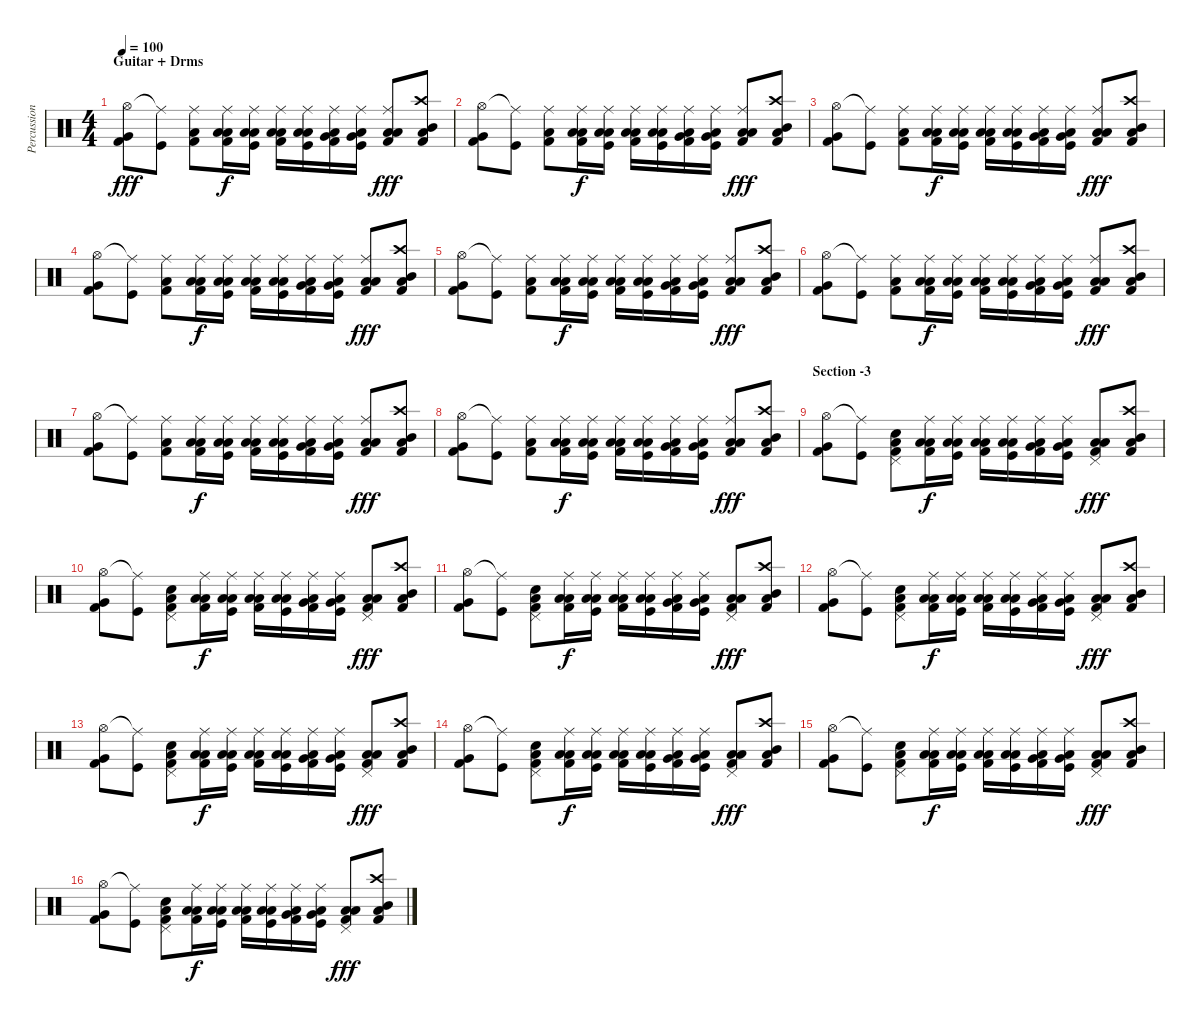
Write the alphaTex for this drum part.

\track ("Percussion" "Percussion") {instrument percussion}
\staff {score}
\articulation defaults
\ts (4 4)
\section ("" "Guitar + Drms")
\tempo 100
\clef neutral
\ks c
("Hi-Hat (open)" "Kick (hit) 2" "Very Low Tom (hit)").8{dy fff} ("Ride (middle)"{t} "Kick (hit)").8 ("Ride (middle)" "Kick (hit) 2" "Low Floor Tom (hit)").8 ("Ride (middle)" "Kick (hit) 2" "Low Floor Tom (hit)" "Low Tom (hit)").16{dy f} ("Ride (middle)" "Kick (hit)" "Low Floor Tom (hit)" "Low Tom (hit)").16 ("Ride (middle)" "Kick (hit) 2" "Low Floor Tom (hit)" "Low Tom (hit)").16 ("Ride (middle)" "Kick (hit)" "Low Floor Tom (hit)" "Low Tom (hit)").16 ("Ride (middle)" "Kick (hit) 2" "Low Floor Tom (hit)" "Very Low Tom (hit)").16 ("Ride (middle)" "Kick (hit)" "Low Floor Tom (hit)" "Very Low Tom (hit)").16 ("Ride (middle)" "Kick (hit) 2" "Low Floor Tom (hit)" "Low Floor Tom (hit)").8{dy fff} ("Crash high (hit)" "Kick (hit) 2" "Low Floor Tom (hit)" "Mid Tom (hit)").8 |
("Hi-Hat (open)" "Kick (hit) 2" "Very Low Tom (hit)").8 ("Ride (middle)"{t} "Kick (hit)").8 ("Ride (middle)" "Kick (hit) 2" "Low Floor Tom (hit)").8 ("Ride (middle)" "Kick (hit) 2" "Low Floor Tom (hit)" "Low Tom (hit)").16{dy f} ("Ride (middle)" "Kick (hit)" "Low Floor Tom (hit)" "Low Tom (hit)").16 ("Ride (middle)" "Kick (hit) 2" "Low Floor Tom (hit)" "Low Tom (hit)").16 ("Ride (middle)" "Kick (hit)" "Low Floor Tom (hit)" "Low Tom (hit)").16 ("Ride (middle)" "Kick (hit) 2" "Low Floor Tom (hit)" "Very Low Tom (hit)").16 ("Ride (middle)" "Kick (hit)" "Low Floor Tom (hit)" "Very Low Tom (hit)").16 ("Ride (middle)" "Kick (hit) 2" "Low Floor Tom (hit)" "Low Floor Tom (hit)").8{dy fff} ("Crash high (hit)" "Kick (hit) 2" "Low Floor Tom (hit)" "Mid Tom (hit)").8 |
("Hi-Hat (open)" "Kick (hit) 2" "Very Low Tom (hit)").8 ("Ride (middle)"{t} "Kick (hit)").8 ("Ride (middle)" "Kick (hit) 2" "Low Floor Tom (hit)").8 ("Ride (middle)" "Kick (hit) 2" "Low Floor Tom (hit)" "Low Tom (hit)").16{dy f} ("Ride (middle)" "Kick (hit)" "Low Floor Tom (hit)" "Low Tom (hit)").16 ("Ride (middle)" "Kick (hit) 2" "Low Floor Tom (hit)" "Low Tom (hit)").16 ("Ride (middle)" "Kick (hit)" "Low Floor Tom (hit)" "Low Tom (hit)").16 ("Ride (middle)" "Kick (hit) 2" "Low Floor Tom (hit)" "Very Low Tom (hit)").16 ("Ride (middle)" "Kick (hit)" "Low Floor Tom (hit)" "Very Low Tom (hit)").16 ("Ride (middle)" "Kick (hit) 2" "Low Floor Tom (hit)" "Low Floor Tom (hit)").8{dy fff} ("Crash high (hit)" "Kick (hit) 2" "Low Floor Tom (hit)" "Mid Tom (hit)").8 |
("Hi-Hat (open)" "Kick (hit) 2" "Very Low Tom (hit)").8 ("Ride (middle)"{t} "Kick (hit)").8 ("Ride (middle)" "Kick (hit) 2" "Low Floor Tom (hit)").8 ("Ride (middle)" "Kick (hit) 2" "Low Floor Tom (hit)" "Low Tom (hit)").16{dy f} ("Ride (middle)" "Kick (hit)" "Low Floor Tom (hit)" "Low Tom (hit)").16 ("Ride (middle)" "Kick (hit) 2" "Low Floor Tom (hit)" "Low Tom (hit)").16 ("Ride (middle)" "Kick (hit)" "Low Floor Tom (hit)" "Low Tom (hit)").16 ("Ride (middle)" "Kick (hit) 2" "Low Floor Tom (hit)" "Very Low Tom (hit)").16 ("Ride (middle)" "Kick (hit)" "Low Floor Tom (hit)" "Very Low Tom (hit)").16 ("Ride (middle)" "Kick (hit) 2" "Low Floor Tom (hit)" "Low Floor Tom (hit)").8{dy fff} ("Crash high (hit)" "Kick (hit) 2" "Low Floor Tom (hit)" "Mid Tom (hit)").8 |
("Hi-Hat (open)" "Kick (hit) 2" "Very Low Tom (hit)").8 ("Ride (middle)"{t} "Kick (hit)").8 ("Ride (middle)" "Kick (hit) 2" "Low Floor Tom (hit)").8 ("Ride (middle)" "Kick (hit) 2" "Low Floor Tom (hit)" "Low Tom (hit)").16{dy f} ("Ride (middle)" "Kick (hit)" "Low Floor Tom (hit)" "Low Tom (hit)").16 ("Ride (middle)" "Kick (hit) 2" "Low Floor Tom (hit)" "Low Tom (hit)").16 ("Ride (middle)" "Kick (hit)" "Low Floor Tom (hit)" "Low Tom (hit)").16 ("Ride (middle)" "Kick (hit) 2" "Low Floor Tom (hit)" "Very Low Tom (hit)").16 ("Ride (middle)" "Kick (hit)" "Low Floor Tom (hit)" "Very Low Tom (hit)").16 ("Ride (middle)" "Kick (hit) 2" "Low Floor Tom (hit)" "Low Floor Tom (hit)").8{dy fff} ("Crash high (hit)" "Kick (hit) 2" "Low Floor Tom (hit)" "Mid Tom (hit)").8 |
("Hi-Hat (open)" "Kick (hit) 2" "Very Low Tom (hit)").8 ("Ride (middle)"{t} "Kick (hit)").8 ("Ride (middle)" "Kick (hit) 2" "Low Floor Tom (hit)").8 ("Ride (middle)" "Kick (hit) 2" "Low Floor Tom (hit)" "Low Tom (hit)").16{dy f} ("Ride (middle)" "Kick (hit)" "Low Floor Tom (hit)" "Low Tom (hit)").16 ("Ride (middle)" "Kick (hit) 2" "Low Floor Tom (hit)" "Low Tom (hit)").16 ("Ride (middle)" "Kick (hit)" "Low Floor Tom (hit)" "Low Tom (hit)").16 ("Ride (middle)" "Kick (hit) 2" "Low Floor Tom (hit)" "Very Low Tom (hit)").16 ("Ride (middle)" "Kick (hit)" "Low Floor Tom (hit)" "Very Low Tom (hit)").16 ("Ride (middle)" "Kick (hit) 2" "Low Floor Tom (hit)" "Low Floor Tom (hit)").8{dy fff} ("Crash high (hit)" "Kick (hit) 2" "Low Floor Tom (hit)" "Mid Tom (hit)").8 |
("Hi-Hat (open)" "Kick (hit) 2" "Very Low Tom (hit)").8 ("Ride (middle)"{t} "Kick (hit)").8 ("Ride (middle)" "Kick (hit) 2" "Low Floor Tom (hit)").8 ("Ride (middle)" "Kick (hit) 2" "Low Floor Tom (hit)" "Low Tom (hit)").16{dy f} ("Ride (middle)" "Kick (hit)" "Low Floor Tom (hit)" "Low Tom (hit)").16 ("Ride (middle)" "Kick (hit) 2" "Low Floor Tom (hit)" "Low Tom (hit)").16 ("Ride (middle)" "Kick (hit)" "Low Floor Tom (hit)" "Low Tom (hit)").16 ("Ride (middle)" "Kick (hit) 2" "Low Floor Tom (hit)" "Very Low Tom (hit)").16 ("Ride (middle)" "Kick (hit)" "Low Floor Tom (hit)" "Very Low Tom (hit)").16 ("Ride (middle)" "Kick (hit) 2" "Low Floor Tom (hit)" "Low Floor Tom (hit)").8{dy fff} ("Crash high (hit)" "Kick (hit) 2" "Low Floor Tom (hit)" "Mid Tom (hit)").8 |
("Hi-Hat (open)" "Kick (hit) 2" "Very Low Tom (hit)").8 ("Ride (middle)"{t} "Kick (hit)").8 ("Ride (middle)" "Kick (hit) 2" "Low Floor Tom (hit)").8 ("Ride (middle)" "Kick (hit) 2" "Low Floor Tom (hit)" "Low Tom (hit)").16{dy f} ("Ride (middle)" "Kick (hit)" "Low Floor Tom (hit)" "Low Tom (hit)").16 ("Ride (middle)" "Kick (hit) 2" "Low Floor Tom (hit)" "Low Tom (hit)").16 ("Ride (middle)" "Kick (hit)" "Low Floor Tom (hit)" "Low Tom (hit)").16 ("Ride (middle)" "Kick (hit) 2" "Low Floor Tom (hit)" "Very Low Tom (hit)").16 ("Ride (middle)" "Kick (hit)" "Low Floor Tom (hit)" "Very Low Tom (hit)").16 ("Ride (middle)" "Kick (hit) 2" "Low Floor Tom (hit)" "Low Floor Tom (hit)").8{dy fff} ("Crash high (hit)" "Kick (hit) 2" "Low Floor Tom (hit)" "Mid Tom (hit)").8 |
\section ("" "Section -3")
("Hi-Hat (open)" "Kick (hit) 2" "Very Low Tom (hit)").8 ("Ride (middle)"{t} "Kick (hit)").8 ("Pedal Hi-Hat (hit)" "Kick (hit) 2" "Low Floor Tom (hit)" "Snare (hit) 2").8 ("Ride (middle)" "Kick (hit) 2" "Low Floor Tom (hit)" "Low Tom (hit)").16{dy f} ("Ride (middle)" "Kick (hit)" "Low Floor Tom (hit)" "Low Tom (hit)").16 ("Ride (middle)" "Kick (hit) 2" "Low Floor Tom (hit)" "Low Tom (hit)").16 ("Ride (middle)" "Kick (hit)" "Low Floor Tom (hit)" "Low Tom (hit)").16 ("Ride (middle)" "Kick (hit) 2" "Low Floor Tom (hit)" "Very Low Tom (hit)").16 ("Ride (middle)" "Kick (hit)" "Low Floor Tom (hit)" "Very Low Tom (hit)").16 ("Pedal Hi-Hat (hit)" "Kick (hit) 2" "Low Floor Tom (hit)" "Low Floor Tom (hit)").8{dy fff} ("Crash high (hit)" "Kick (hit) 2" "Low Floor Tom (hit)" "Mid Tom (hit)").8 |
("Hi-Hat (open)" "Kick (hit) 2" "Very Low Tom (hit)").8 ("Ride (middle)"{t} "Kick (hit)").8 ("Pedal Hi-Hat (hit)" "Kick (hit) 2" "Low Floor Tom (hit)" "Snare (hit) 2").8 ("Ride (middle)" "Kick (hit) 2" "Low Floor Tom (hit)" "Low Tom (hit)").16{dy f} ("Ride (middle)" "Kick (hit)" "Low Floor Tom (hit)" "Low Tom (hit)").16 ("Ride (middle)" "Kick (hit) 2" "Low Floor Tom (hit)" "Low Tom (hit)").16 ("Ride (middle)" "Kick (hit)" "Low Floor Tom (hit)" "Low Tom (hit)").16 ("Ride (middle)" "Kick (hit) 2" "Low Floor Tom (hit)" "Very Low Tom (hit)").16 ("Ride (middle)" "Kick (hit)" "Low Floor Tom (hit)" "Very Low Tom (hit)").16 ("Pedal Hi-Hat (hit)" "Kick (hit) 2" "Low Floor Tom (hit)" "Low Floor Tom (hit)").8{dy fff} ("Crash high (hit)" "Kick (hit) 2" "Low Floor Tom (hit)" "Mid Tom (hit)").8 |
("Hi-Hat (open)" "Kick (hit) 2" "Very Low Tom (hit)").8 ("Ride (middle)"{t} "Kick (hit)").8 ("Pedal Hi-Hat (hit)" "Kick (hit) 2" "Low Floor Tom (hit)" "Snare (hit) 2").8 ("Ride (middle)" "Kick (hit) 2" "Low Floor Tom (hit)" "Low Tom (hit)").16{dy f} ("Ride (middle)" "Kick (hit)" "Low Floor Tom (hit)" "Low Tom (hit)").16 ("Ride (middle)" "Kick (hit) 2" "Low Floor Tom (hit)" "Low Tom (hit)").16 ("Ride (middle)" "Kick (hit)" "Low Floor Tom (hit)" "Low Tom (hit)").16 ("Ride (middle)" "Kick (hit) 2" "Low Floor Tom (hit)" "Very Low Tom (hit)").16 ("Ride (middle)" "Kick (hit)" "Low Floor Tom (hit)" "Very Low Tom (hit)").16 ("Pedal Hi-Hat (hit)" "Kick (hit) 2" "Low Floor Tom (hit)" "Low Floor Tom (hit)").8{dy fff} ("Crash high (hit)" "Kick (hit) 2" "Low Floor Tom (hit)" "Mid Tom (hit)").8 |
("Hi-Hat (open)" "Kick (hit) 2" "Very Low Tom (hit)").8 ("Ride (middle)"{t} "Kick (hit)").8 ("Pedal Hi-Hat (hit)" "Kick (hit) 2" "Low Floor Tom (hit)" "Snare (hit) 2").8 ("Ride (middle)" "Kick (hit) 2" "Low Floor Tom (hit)" "Low Tom (hit)").16{dy f} ("Ride (middle)" "Kick (hit)" "Low Floor Tom (hit)" "Low Tom (hit)").16 ("Ride (middle)" "Kick (hit) 2" "Low Floor Tom (hit)" "Low Tom (hit)").16 ("Ride (middle)" "Kick (hit)" "Low Floor Tom (hit)" "Low Tom (hit)").16 ("Ride (middle)" "Kick (hit) 2" "Low Floor Tom (hit)" "Very Low Tom (hit)").16 ("Ride (middle)" "Kick (hit)" "Low Floor Tom (hit)" "Very Low Tom (hit)").16 ("Pedal Hi-Hat (hit)" "Kick (hit) 2" "Low Floor Tom (hit)" "Low Floor Tom (hit)").8{dy fff} ("Crash high (hit)" "Kick (hit) 2" "Low Floor Tom (hit)" "Mid Tom (hit)").8 |
("Hi-Hat (open)" "Kick (hit) 2" "Very Low Tom (hit)").8 ("Ride (middle)"{t} "Kick (hit)").8 ("Pedal Hi-Hat (hit)" "Kick (hit) 2" "Low Floor Tom (hit)" "Snare (hit) 2").8 ("Ride (middle)" "Kick (hit) 2" "Low Floor Tom (hit)" "Low Tom (hit)").16{dy f} ("Ride (middle)" "Kick (hit)" "Low Floor Tom (hit)" "Low Tom (hit)").16 ("Ride (middle)" "Kick (hit) 2" "Low Floor Tom (hit)" "Low Tom (hit)").16 ("Ride (middle)" "Kick (hit)" "Low Floor Tom (hit)" "Low Tom (hit)").16 ("Ride (middle)" "Kick (hit) 2" "Low Floor Tom (hit)" "Very Low Tom (hit)").16 ("Ride (middle)" "Kick (hit)" "Low Floor Tom (hit)" "Very Low Tom (hit)").16 ("Pedal Hi-Hat (hit)" "Kick (hit) 2" "Low Floor Tom (hit)" "Low Floor Tom (hit)").8{dy fff} ("Crash high (hit)" "Kick (hit) 2" "Low Floor Tom (hit)" "Mid Tom (hit)").8 |
("Hi-Hat (open)" "Kick (hit) 2" "Very Low Tom (hit)").8 ("Ride (middle)"{t} "Kick (hit)").8 ("Pedal Hi-Hat (hit)" "Kick (hit) 2" "Low Floor Tom (hit)" "Snare (hit) 2").8 ("Ride (middle)" "Kick (hit) 2" "Low Floor Tom (hit)" "Low Tom (hit)").16{dy f} ("Ride (middle)" "Kick (hit)" "Low Floor Tom (hit)" "Low Tom (hit)").16 ("Ride (middle)" "Kick (hit) 2" "Low Floor Tom (hit)" "Low Tom (hit)").16 ("Ride (middle)" "Kick (hit)" "Low Floor Tom (hit)" "Low Tom (hit)").16 ("Ride (middle)" "Kick (hit) 2" "Low Floor Tom (hit)" "Very Low Tom (hit)").16 ("Ride (middle)" "Kick (hit)" "Low Floor Tom (hit)" "Very Low Tom (hit)").16 ("Pedal Hi-Hat (hit)" "Kick (hit) 2" "Low Floor Tom (hit)" "Low Floor Tom (hit)").8{dy fff} ("Crash high (hit)" "Kick (hit) 2" "Low Floor Tom (hit)" "Mid Tom (hit)").8 |
("Hi-Hat (open)" "Kick (hit) 2" "Very Low Tom (hit)").8 ("Ride (middle)"{t} "Kick (hit)").8 ("Pedal Hi-Hat (hit)" "Kick (hit) 2" "Low Floor Tom (hit)" "Snare (hit) 2").8 ("Ride (middle)" "Kick (hit) 2" "Low Floor Tom (hit)" "Low Tom (hit)").16{dy f} ("Ride (middle)" "Kick (hit)" "Low Floor Tom (hit)" "Low Tom (hit)").16 ("Ride (middle)" "Kick (hit) 2" "Low Floor Tom (hit)" "Low Tom (hit)").16 ("Ride (middle)" "Kick (hit)" "Low Floor Tom (hit)" "Low Tom (hit)").16 ("Ride (middle)" "Kick (hit) 2" "Low Floor Tom (hit)" "Very Low Tom (hit)").16 ("Ride (middle)" "Kick (hit)" "Low Floor Tom (hit)" "Very Low Tom (hit)").16 ("Pedal Hi-Hat (hit)" "Kick (hit) 2" "Low Floor Tom (hit)" "Low Floor Tom (hit)").8{dy fff} ("Crash high (hit)" "Kick (hit) 2" "Low Floor Tom (hit)" "Mid Tom (hit)").8 |
("Hi-Hat (open)" "Kick (hit) 2" "Very Low Tom (hit)").8 ("Ride (middle)"{t} "Kick (hit)").8 ("Pedal Hi-Hat (hit)" "Kick (hit) 2" "Low Floor Tom (hit)" "Snare (hit) 2").8 ("Ride (middle)" "Kick (hit) 2" "Low Floor Tom (hit)" "Low Tom (hit)").16{dy f} ("Ride (middle)" "Kick (hit)" "Low Floor Tom (hit)" "Low Tom (hit)").16 ("Ride (middle)" "Kick (hit) 2" "Low Floor Tom (hit)" "Low Tom (hit)").16 ("Ride (middle)" "Kick (hit)" "Low Floor Tom (hit)" "Low Tom (hit)").16 ("Ride (middle)" "Kick (hit) 2" "Low Floor Tom (hit)" "Very Low Tom (hit)").16 ("Ride (middle)" "Kick (hit)" "Low Floor Tom (hit)" "Very Low Tom (hit)").16 ("Pedal Hi-Hat (hit)" "Kick (hit) 2" "Low Floor Tom (hit)" "Low Floor Tom (hit)").8{dy fff} ("Crash high (hit)" "Kick (hit) 2" "Low Floor Tom (hit)" "Mid Tom (hit)").8
